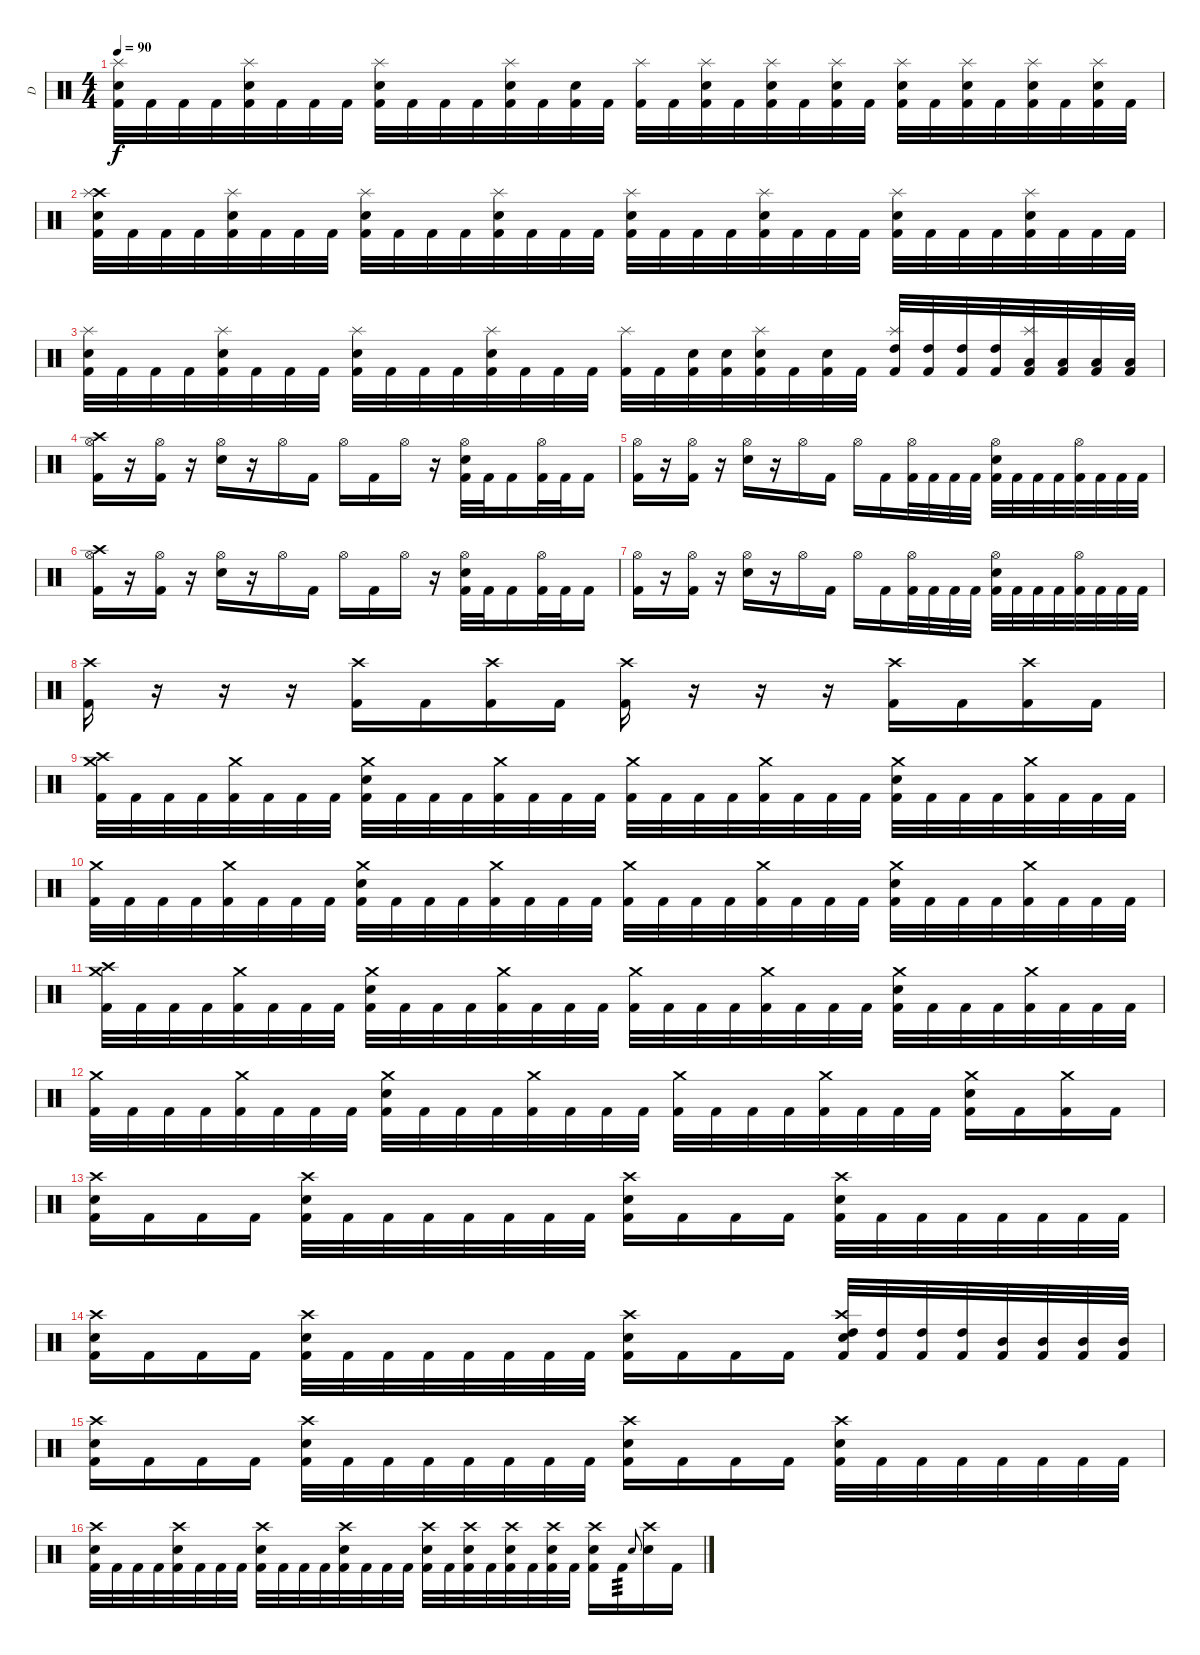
\track ("D" "D") {instrument percussion}
\staff {score}
\articulation defaults
\ts (4 4)
\tempo 90
\clef neutral
\ks c
("Electric Snare (hit)" "Kick (hit) 2" "Splash (hit)").32{dy f} "Kick (hit) 2".32 "Kick (hit) 2".32 "Kick (hit) 2".32 ("Electric Snare (hit)" "Kick (hit) 2" "Splash (hit)").32 "Kick (hit) 2".32 "Kick (hit) 2".32 "Kick (hit) 2".32 ("Electric Snare (hit)" "Kick (hit) 2" "Splash (hit)").32 "Kick (hit) 2".32 "Kick (hit) 2".32 "Kick (hit) 2".32 ("Electric Snare (hit)" "Kick (hit) 2" "Splash (hit)").32 "Kick (hit) 2".32 ("Electric Snare (hit)" "Kick (hit) 2").32 "Kick (hit) 2".32 ("Kick (hit) 2" "Splash (hit)").32 "Kick (hit) 2".32 ("Electric Snare (hit)" "Kick (hit) 2" "Splash (hit)").32 "Kick (hit) 2".32 ("Electric Snare (hit)" "Kick (hit) 2" "Splash (hit)").32 "Kick (hit) 2".32 ("Electric Snare (hit)" "Kick (hit) 2" "Splash (hit)").32 "Kick (hit) 2".32 ("Electric Snare (hit)" "Kick (hit) 2" "Splash (hit)").32 "Kick (hit) 2".32 ("Electric Snare (hit)" "Kick (hit) 2" "Splash (hit)").32 "Kick (hit) 2".32 ("Electric Snare (hit)" "Kick (hit) 2" "Splash (hit)").32 "Kick (hit) 2".32 ("Electric Snare (hit)" "Kick (hit) 2" "Splash (hit)").32 "Kick (hit) 2".32 |
("Crash high (hit)" "Electric Snare (hit)" "Kick (hit) 2" "Splash (hit)").32 "Kick (hit) 2".32 "Kick (hit) 2".32 "Kick (hit) 2".32 ("Electric Snare (hit)" "Kick (hit) 2" "Splash (hit)").32 "Kick (hit) 2".32 "Kick (hit) 2".32 "Kick (hit) 2".32 ("Electric Snare (hit)" "Kick (hit) 2" "Splash (hit)").32 "Kick (hit) 2".32 "Kick (hit) 2".32 "Kick (hit) 2".32 ("Electric Snare (hit)" "Kick (hit) 2" "Splash (hit)").32 "Kick (hit) 2".32 "Kick (hit) 2".32 "Kick (hit) 2".32 ("Electric Snare (hit)" "Kick (hit) 2" "Splash (hit)").32 "Kick (hit) 2".32 "Kick (hit) 2".32 "Kick (hit) 2".32 ("Electric Snare (hit)" "Kick (hit) 2" "Splash (hit)").32 "Kick (hit) 2".32 "Kick (hit) 2".32 "Kick (hit) 2".32 ("Electric Snare (hit)" "Kick (hit) 2" "Splash (hit)").32 "Kick (hit) 2".32 "Kick (hit) 2".32 "Kick (hit) 2".32 ("Electric Snare (hit)" "Kick (hit) 2" "Splash (hit)").32 "Kick (hit) 2".32 "Kick (hit) 2".32 "Kick (hit) 2".32 |
("Electric Snare (hit)" "Kick (hit) 2" "Splash (hit)").32 "Kick (hit) 2".32 "Kick (hit) 2".32 "Kick (hit) 2".32 ("Electric Snare (hit)" "Kick (hit) 2" "Splash (hit)").32 "Kick (hit) 2".32 "Kick (hit) 2".32 "Kick (hit) 2".32 ("Electric Snare (hit)" "Kick (hit) 2" "Splash (hit)").32 "Kick (hit) 2".32 "Kick (hit) 2".32 "Kick (hit) 2".32 ("Electric Snare (hit)" "Kick (hit) 2" "Splash (hit)").32 "Kick (hit) 2".32 "Kick (hit) 2".32 "Kick (hit) 2".32 ("Kick (hit) 2" "Splash (hit)").32 "Kick (hit) 2".32 ("Electric Snare (hit)" "Kick (hit) 2").32 ("Electric Snare (hit)" "Kick (hit) 2").32 ("Electric Snare (hit)" "Kick (hit) 2" "Splash (hit)").32 "Kick (hit) 2".32 ("Electric Snare (hit)" "Kick (hit) 2").32 "Kick (hit) 2".32 ("High Tom (hit)" "Kick (hit) 2" "Splash (hit)").32 ("High Tom (hit)" "Kick (hit) 2").32 ("High Tom (hit)" "Kick (hit) 2").32 ("High Tom (hit)" "Kick (hit) 2").32 ("Low Tom (hit)" "Kick (hit) 2" "Splash (hit)").32 ("Low Tom (hit)" "Kick (hit) 2").32 ("Low Tom (hit)" "Kick (hit) 2").32 ("Low Tom (hit)" "Kick (hit) 2").32 |
("Crash high (hit)" "Kick (hit) 2" "Hi-Hat (open)").16 r.16 ("Kick (hit) 2" "Hi-Hat (open)").16 r.16 ("Electric Snare (hit)" "Hi-Hat (open)").16 r.16 "Hi-Hat (open)".16 "Kick (hit) 2".16 "Hi-Hat (open)".16 "Kick (hit) 2".16 "Hi-Hat (open)".16 r.16 ("Electric Snare (hit)" "Kick (hit) 2" "Hi-Hat (open)").32 "Kick (hit) 2".32 "Kick (hit) 2".16 ("Kick (hit) 2" "Hi-Hat (open)").32 "Kick (hit) 2".32 "Kick (hit) 2".16 |
("Kick (hit) 2" "Hi-Hat (open)").16 r.16 ("Kick (hit) 2" "Hi-Hat (open)").16 r.16 ("Electric Snare (hit)" "Hi-Hat (open)").16 r.16 "Hi-Hat (open)".16 "Kick (hit) 2".16 "Hi-Hat (open)".16 "Kick (hit) 2".16 ("Kick (hit) 2" "Hi-Hat (open)").32 "Kick (hit) 2".32 "Kick (hit) 2".32 "Kick (hit) 2".32 ("Electric Snare (hit)" "Kick (hit) 2" "Hi-Hat (open)").32 "Kick (hit) 2".32 "Kick (hit) 2".32 "Kick (hit) 2".32 ("Kick (hit) 2" "Hi-Hat (open)").32 "Kick (hit) 2".32 "Kick (hit) 2".32 "Kick (hit) 2".32 |
("Crash high (hit)" "Kick (hit) 2" "Hi-Hat (open)").16 r.16 ("Kick (hit) 2" "Hi-Hat (open)").16 r.16 ("Electric Snare (hit)" "Hi-Hat (open)").16 r.16 "Hi-Hat (open)".16 "Kick (hit) 2".16 "Hi-Hat (open)".16 "Kick (hit) 2".16 "Hi-Hat (open)".16 r.16 ("Electric Snare (hit)" "Kick (hit) 2" "Hi-Hat (open)").32 "Kick (hit) 2".32 "Kick (hit) 2".16 ("Kick (hit) 2" "Hi-Hat (open)").32 "Kick (hit) 2".32 "Kick (hit) 2".16 |
("Kick (hit) 2" "Hi-Hat (open)").16 r.16 ("Kick (hit) 2" "Hi-Hat (open)").16 r.16 ("Electric Snare (hit)" "Hi-Hat (open)").16 r.16 "Hi-Hat (open)".16 "Kick (hit) 2".16 "Hi-Hat (open)".16 "Kick (hit) 2".16 ("Kick (hit) 2" "Hi-Hat (open)").32 "Kick (hit) 2".32 "Kick (hit) 2".32 "Kick (hit) 2".32 ("Electric Snare (hit)" "Kick (hit) 2" "Hi-Hat (open)").32 "Kick (hit) 2".32 "Kick (hit) 2".32 "Kick (hit) 2".32 ("Kick (hit) 2" "Hi-Hat (open)").32 "Kick (hit) 2".32 "Kick (hit) 2".32 "Kick (hit) 2".32 |
("Crash high (hit)" "Kick (hit) 2").16 r.16 r.16 r.16 ("Crash high (hit)" "Kick (hit) 2").16 "Kick (hit) 2".16 ("Crash high (hit)" "Kick (hit) 2").16 "Kick (hit) 2".16 ("Crash high (hit)" "Kick (hit) 2").16 r.16 r.16 r.16 ("Crash high (hit)" "Kick (hit) 2").16 "Kick (hit) 2".16 ("Crash high (hit)" "Kick (hit) 2").16 "Kick (hit) 2".16 |
("Crash high (hit)" "Kick (hit) 2" "Crash medium (hit)").32 "Kick (hit) 2".32 "Kick (hit) 2".32 "Kick (hit) 2".32 ("Kick (hit) 2" "Crash medium (hit)").32 "Kick (hit) 2".32 "Kick (hit) 2".32 "Kick (hit) 2".32 ("Electric Snare (hit)" "Kick (hit) 2" "Crash medium (hit)").32 "Kick (hit) 2".32 "Kick (hit) 2".32 "Kick (hit) 2".32 ("Kick (hit) 2" "Crash medium (hit)").32 "Kick (hit) 2".32 "Kick (hit) 2".32 "Kick (hit) 2".32 ("Kick (hit) 2" "Crash medium (hit)").32 "Kick (hit) 2".32 "Kick (hit) 2".32 "Kick (hit) 2".32 ("Kick (hit) 2" "Crash medium (hit)").32 "Kick (hit) 2".32 "Kick (hit) 2".32 "Kick (hit) 2".32 ("Electric Snare (hit)" "Kick (hit) 2" "Crash medium (hit)").32 "Kick (hit) 2".32 "Kick (hit) 2".32 "Kick (hit) 2".32 ("Kick (hit) 2" "Crash medium (hit)").32 "Kick (hit) 2".32 "Kick (hit) 2".32 "Kick (hit) 2".32 |
("Kick (hit) 2" "Crash medium (hit)").32 "Kick (hit) 2".32 "Kick (hit) 2".32 "Kick (hit) 2".32 ("Kick (hit) 2" "Crash medium (hit)").32 "Kick (hit) 2".32 "Kick (hit) 2".32 "Kick (hit) 2".32 ("Electric Snare (hit)" "Kick (hit) 2" "Crash medium (hit)").32 "Kick (hit) 2".32 "Kick (hit) 2".32 "Kick (hit) 2".32 ("Kick (hit) 2" "Crash medium (hit)").32 "Kick (hit) 2".32 "Kick (hit) 2".32 "Kick (hit) 2".32 ("Kick (hit) 2" "Crash medium (hit)").32 "Kick (hit) 2".32 "Kick (hit) 2".32 "Kick (hit) 2".32 ("Kick (hit) 2" "Crash medium (hit)").32 "Kick (hit) 2".32 "Kick (hit) 2".32 "Kick (hit) 2".32 ("Electric Snare (hit)" "Kick (hit) 2" "Crash medium (hit)").32 "Kick (hit) 2".32 "Kick (hit) 2".32 "Kick (hit) 2".32 ("Kick (hit) 2" "Crash medium (hit)").32 "Kick (hit) 2".32 "Kick (hit) 2".32 "Kick (hit) 2".32 |
("Crash high (hit)" "Kick (hit) 2" "Crash medium (hit)").32 "Kick (hit) 2".32 "Kick (hit) 2".32 "Kick (hit) 2".32 ("Kick (hit) 2" "Crash medium (hit)").32 "Kick (hit) 2".32 "Kick (hit) 2".32 "Kick (hit) 2".32 ("Electric Snare (hit)" "Kick (hit) 2" "Crash medium (hit)").32 "Kick (hit) 2".32 "Kick (hit) 2".32 "Kick (hit) 2".32 ("Kick (hit) 2" "Crash medium (hit)").32 "Kick (hit) 2".32 "Kick (hit) 2".32 "Kick (hit) 2".32 ("Kick (hit) 2" "Crash medium (hit)").32 "Kick (hit) 2".32 "Kick (hit) 2".32 "Kick (hit) 2".32 ("Kick (hit) 2" "Crash medium (hit)").32 "Kick (hit) 2".32 "Kick (hit) 2".32 "Kick (hit) 2".32 ("Electric Snare (hit)" "Kick (hit) 2" "Crash medium (hit)").32 "Kick (hit) 2".32 "Kick (hit) 2".32 "Kick (hit) 2".32 ("Kick (hit) 2" "Crash medium (hit)").32 "Kick (hit) 2".32 "Kick (hit) 2".32 "Kick (hit) 2".32 |
("Kick (hit) 2" "Crash medium (hit)").32 "Kick (hit) 2".32 "Kick (hit) 2".32 "Kick (hit) 2".32 ("Kick (hit) 2" "Crash medium (hit)").32 "Kick (hit) 2".32 "Kick (hit) 2".32 "Kick (hit) 2".32 ("Electric Snare (hit)" "Kick (hit) 2" "Crash medium (hit)").32 "Kick (hit) 2".32 "Kick (hit) 2".32 "Kick (hit) 2".32 ("Kick (hit) 2" "Crash medium (hit)").32 "Kick (hit) 2".32 "Kick (hit) 2".32 "Kick (hit) 2".32 ("Kick (hit) 2" "Crash medium (hit)").32 "Kick (hit) 2".32 "Kick (hit) 2".32 "Kick (hit) 2".32 ("Kick (hit) 2" "Crash medium (hit)").32 "Kick (hit) 2".32 "Kick (hit) 2".32 "Kick (hit) 2".32 ("Electric Snare (hit)" "Kick (hit) 2" "Crash medium (hit)").16 "Kick (hit) 2".16 ("Kick (hit) 2" "Crash medium (hit)").16 "Kick (hit) 2".16 |
("Crash high (hit)" "Electric Snare (hit)" "Kick (hit) 2").16 "Kick (hit) 2".16 "Kick (hit) 2".16 "Kick (hit) 2".16 ("Crash high (hit)" "Electric Snare (hit)" "Kick (hit) 2").32 "Kick (hit) 2".32 "Kick (hit) 2".32 "Kick (hit) 2".32 "Kick (hit) 2".32 "Kick (hit) 2".32 "Kick (hit) 2".32 "Kick (hit) 2".32 ("Crash high (hit)" "Electric Snare (hit)" "Kick (hit) 2").16 "Kick (hit) 2".16 "Kick (hit) 2".16 "Kick (hit) 2".16 ("Crash high (hit)" "Electric Snare (hit)" "Kick (hit) 2").32 "Kick (hit) 2".32 "Kick (hit) 2".32 "Kick (hit) 2".32 "Kick (hit) 2".32 "Kick (hit) 2".32 "Kick (hit) 2".32 "Kick (hit) 2".32 |
("Crash high (hit)" "Electric Snare (hit)" "Kick (hit) 2").16 "Kick (hit) 2".16 "Kick (hit) 2".16 "Kick (hit) 2".16 ("Crash high (hit)" "Electric Snare (hit)" "Kick (hit) 2").32 "Kick (hit) 2".32 "Kick (hit) 2".32 "Kick (hit) 2".32 "Kick (hit) 2".32 "Kick (hit) 2".32 "Kick (hit) 2".32 "Kick (hit) 2".32 ("Crash high (hit)" "Electric Snare (hit)" "Kick (hit) 2").16 "Kick (hit) 2".16 "Kick (hit) 2".16 "Kick (hit) 2".16 ("Crash high (hit)" "High Tom (hit)" "Electric Snare (hit)" "Kick (hit) 2").32 ("High Tom (hit)" "Kick (hit) 2").32 ("High Tom (hit)" "Kick (hit) 2").32 ("High Tom (hit)" "Kick (hit) 2").32 ("Mid Tom (hit)" "Kick (hit) 2").32 ("Mid Tom (hit)" "Kick (hit) 2").32 ("Mid Tom (hit)" "Kick (hit) 2").32 ("Mid Tom (hit)" "Kick (hit) 2").32 |
("Crash high (hit)" "Electric Snare (hit)" "Kick (hit) 2").16 "Kick (hit) 2".16 "Kick (hit) 2".16 "Kick (hit) 2".16 ("Crash high (hit)" "Electric Snare (hit)" "Kick (hit) 2").32 "Kick (hit) 2".32 "Kick (hit) 2".32 "Kick (hit) 2".32 "Kick (hit) 2".32 "Kick (hit) 2".32 "Kick (hit) 2".32 "Kick (hit) 2".32 ("Crash high (hit)" "Electric Snare (hit)" "Kick (hit) 2").16 "Kick (hit) 2".16 "Kick (hit) 2".16 "Kick (hit) 2".16 ("Crash high (hit)" "Electric Snare (hit)" "Kick (hit) 2").32 "Kick (hit) 2".32 "Kick (hit) 2".32 "Kick (hit) 2".32 "Kick (hit) 2".32 "Kick (hit) 2".32 "Kick (hit) 2".32 "Kick (hit) 2".32 |
("Crash high (hit)" "Electric Snare (hit)" "Kick (hit) 2").32 "Kick (hit) 2".32 "Kick (hit) 2".32 "Kick (hit) 2".32 ("Crash high (hit)" "Electric Snare (hit)" "Kick (hit) 2").32 "Kick (hit) 2".32 "Kick (hit) 2".32 "Kick (hit) 2".32 ("Crash high (hit)" "Electric Snare (hit)" "Kick (hit) 2").32 "Kick (hit) 2".32 "Kick (hit) 2".32 "Kick (hit) 2".32 ("Crash high (hit)" "Electric Snare (hit)" "Kick (hit) 2").32 "Kick (hit) 2".32 "Kick (hit) 2".32 "Kick (hit) 2".32 ("Crash high (hit)" "Electric Snare (hit)" "Kick (hit) 2").32 "Kick (hit) 2".32 ("Crash high (hit)" "Electric Snare (hit)" "Kick (hit) 2").32 "Kick (hit) 2".32 ("Crash high (hit)" "Electric Snare (hit)" "Kick (hit) 2").32 "Kick (hit) 2".32 ("Crash high (hit)" "Electric Snare (hit)" "Kick (hit) 2").32 "Kick (hit) 2".32 ("Crash high (hit)" "Electric Snare (hit)" "Kick (hit) 2").16 "Kick (hit) 2".16{tp 3} "Electric Snare (hit)".8{gr onbeat} ("Crash high (hit)" "Electric Snare (hit)").16 "Kick (hit) 2".16
